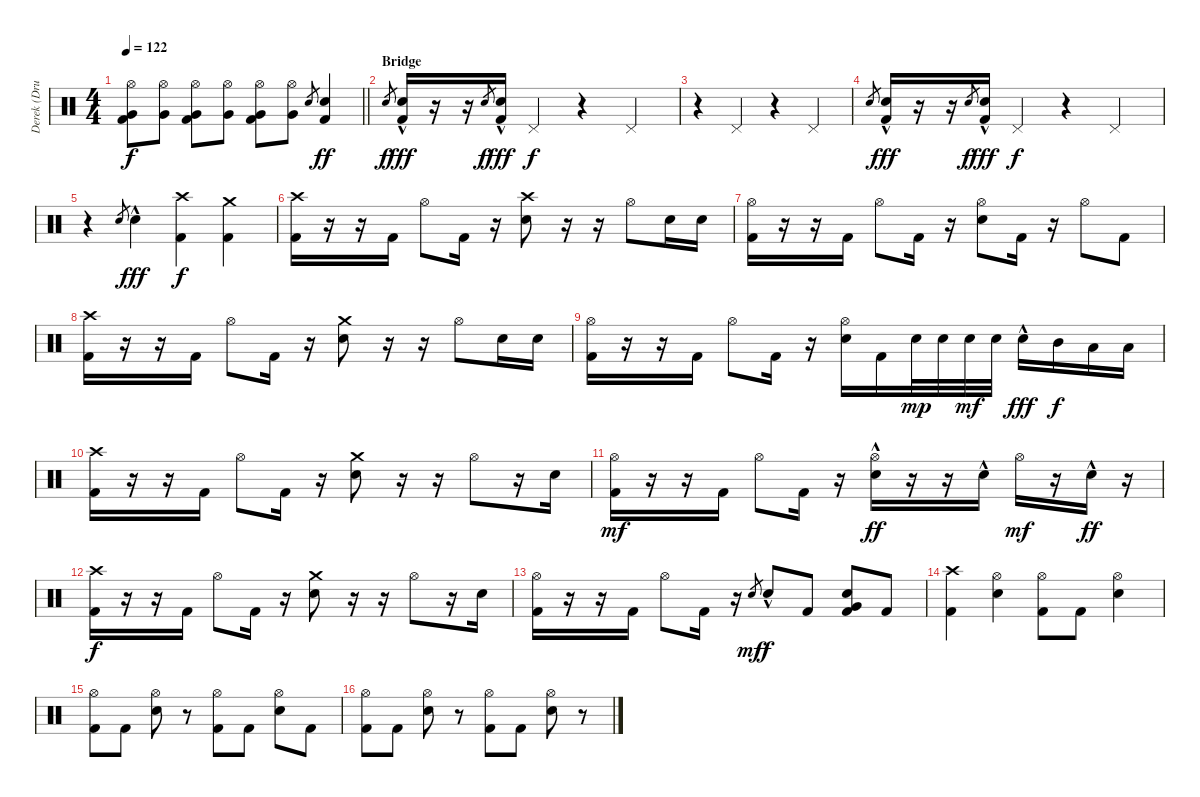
\track ("Derek (Drums)" "Derek (Dru") {instrument percussion}
\staff {score}
\articulation defaults
\ts (4 4)
\tempo 122
\clef neutral
\barLineRight lightlight
\ks c
("Hi-Hat (open)" "Very Low Tom (hit)" "Kick (hit) 2").8{dy f} ("Hi-Hat (open)" "Very Low Tom (hit)").8 ("Hi-Hat (open)" "Very Low Tom (hit)" "Kick (hit) 2").8 ("Hi-Hat (open)" "Very Low Tom (hit)").8 ("Hi-Hat (open)" "Very Low Tom (hit)" "Kick (hit) 2").8 ("Hi-Hat (open)" "Very Low Tom (hit)").8 "Electric Snare (hit)".8{gr} ("Electric Snare (hit)" "Kick (hit) 2").4{dy ff} |
\section ("" "Bridge")
"Electric Snare (hit)".8{gr dy f} ("Electric Snare (hit)"{hac} "Kick (hit) 2").16{dy fff} r.16 r.16 "Electric Snare (hit)".8{gr dy f} ("Electric Snare (hit)"{hac} "Kick (hit) 2").16{dy fff} "Pedal Hi-Hat (hit)".4{dy f} r.4 "Pedal Hi-Hat (hit)".4 |
r.4 "Pedal Hi-Hat (hit)".4 r.4 "Pedal Hi-Hat (hit)".4 |
"Electric Snare (hit)".8{gr} ("Electric Snare (hit)"{hac} "Kick (hit) 2").16{dy fff} r.16 r.16 "Electric Snare (hit)".8{gr dy f} ("Electric Snare (hit)"{hac} "Kick (hit) 2").16{dy fff} "Pedal Hi-Hat (hit)".4{dy f} r.4 "Pedal Hi-Hat (hit)".4 |
r.4 "Electric Snare (hit)".8{gr} "Electric Snare (hit)"{hac}.4{dy fff} ("Crash high (hit)" "Kick (hit) 2").4{dy f} ("Crash medium (hit)" "Kick (hit) 2").4 |
("Crash high (hit)" "Kick (hit) 2").16 r.16 r.16 "Kick (hit) 2".16 "Hi-Hat (open)".8 "Kick (hit) 2".16 r.16 ("Crash high (hit)" "Electric Snare (hit)").8 r.16 r.16 "Hi-Hat (open)".8 "Electric Snare (hit)".16 "Electric Snare (hit)".16 |
("Hi-Hat (open)" "Kick (hit) 2").16 r.16 r.16 "Kick (hit) 2".16 "Hi-Hat (open)".8 "Kick (hit) 2".16 r.16 ("Hi-Hat (open)" "Electric Snare (hit)").8 "Kick (hit) 2".16 r.16 "Hi-Hat (open)".8 "Kick (hit) 2".8 |
("Crash high (hit)" "Kick (hit) 2").16 r.16 r.16 "Kick (hit) 2".16 "Hi-Hat (open)".8 "Kick (hit) 2".16 r.16 ("Crash medium (hit)" "Electric Snare (hit)").8 r.16 r.16 "Hi-Hat (open)".8 "Electric Snare (hit)".16 "Electric Snare (hit)".16 |
("Hi-Hat (open)" "Kick (hit) 2").16 r.16 r.16 "Kick (hit) 2".16 "Hi-Hat (open)".8 "Kick (hit) 2".16 r.16 ("Hi-Hat (open)" "Electric Snare (hit)").16 "Kick (hit) 2".16 "Electric Snare (hit)".32{dy mp} "Electric Snare (hit)".32 "Electric Snare (hit)".32{dy mf} "Electric Snare (hit)".32 "Electric Snare (hit)"{hac}.16{dy fff} "Mid Tom (hit)".16{dy f} "Low Tom (hit)".16 "Low Tom (hit)".16 |
("Crash high (hit)" "Kick (hit) 2").16 r.16 r.16 "Kick (hit) 2".16 "Hi-Hat (open)".8 "Kick (hit) 2".16 r.16 ("Crash medium (hit)" "Electric Snare (hit)").8 r.16 r.16 "Hi-Hat (open)".8 r.16 "Electric Snare (hit)".16 |
("Hi-Hat (open)" "Kick (hit) 2").16{dy mf} r.16 r.16 "Kick (hit) 2".16 "Hi-Hat (open)".8 "Kick (hit) 2".16 r.16 ("Hi-Hat (open)" "Electric Snare (hit)"{hac}).16{dy ff} r.16 r.16 "Electric Snare (hit)"{hac}.16 "Hi-Hat (open)".16{dy mf} r.16 "Electric Snare (hit)"{hac}.16{dy ff} r.16 |
("Crash high (hit)" "Kick (hit) 2").16{dy f} r.16 r.16 "Kick (hit) 2".16 "Hi-Hat (open)".8 "Kick (hit) 2".16 r.16 ("Crash medium (hit)" "Electric Snare (hit)").8 r.16 r.16 "Hi-Hat (open)".8 r.16 "Electric Snare (hit)".16 |
("Hi-Hat (open)" "Kick (hit) 2").16 r.16 r.16 "Kick (hit) 2".16 "Hi-Hat (open)".8 "Kick (hit) 2".16 r.16 "Electric Snare (hit)".8{gr dy mf} "Electric Snare (hit)"{hac}.8{dy f} "Kick (hit) 2".8 ("Very Low Tom (hit)" "Electric Snare (hit)" "Kick (hit) 2").8 "Kick (hit) 2".8 |
("Crash high (hit)" "Kick (hit) 2").4 ("Hi-Hat (open)" "Electric Snare (hit)").4 ("Hi-Hat (open)" "Kick (hit) 2").8 "Kick (hit) 2".8 ("Hi-Hat (open)" "Electric Snare (hit)").4 |
("Hi-Hat (open)" "Kick (hit) 2").8 "Kick (hit) 2".8 ("Hi-Hat (open)" "Electric Snare (hit)").8 r.8 ("Hi-Hat (open)" "Kick (hit) 2").8 "Kick (hit) 2".8 ("Hi-Hat (open)" "Electric Snare (hit)").8 "Kick (hit) 2".8 |
("Hi-Hat (open)" "Kick (hit) 2").8 "Kick (hit) 2".8 ("Hi-Hat (open)" "Electric Snare (hit)").8 r.8 ("Hi-Hat (open)" "Kick (hit) 2").8 "Kick (hit) 2".8 ("Hi-Hat (open)" "Electric Snare (hit)").8 r.8
